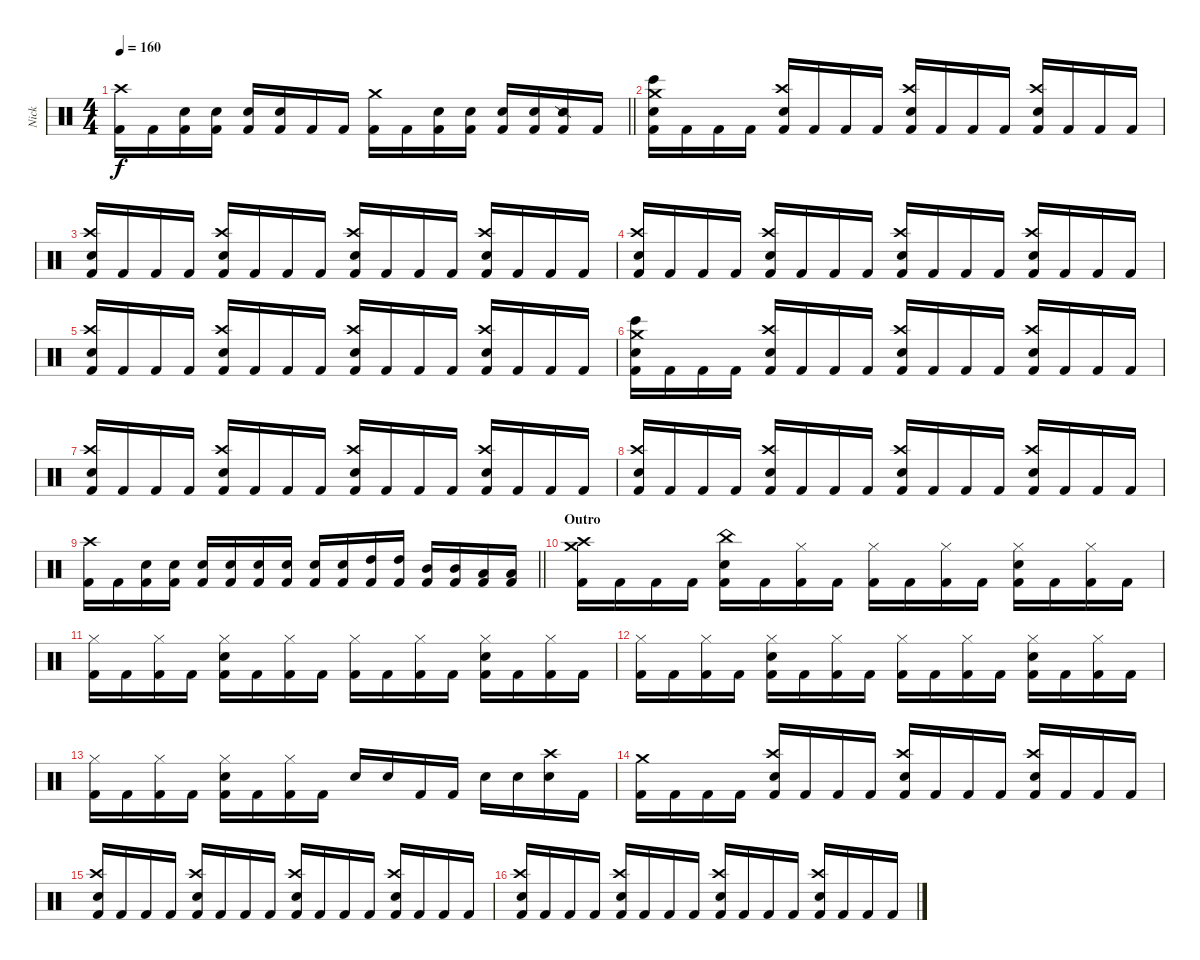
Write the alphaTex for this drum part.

\track ("Nick" "Nick") {instrument percussion}
\staff {score}
\articulation defaults
\ts (4 4)
\tempo 160
\clef neutral
\barLineRight lightlight
\ks c
("Kick (hit) 2" "Crash high (hit)").16{dy f} "Kick (hit) 2".16 ("Kick (hit) 2" "Electric Snare (hit)").16 ("Kick (hit) 2" "Electric Snare (hit)").16 ("Kick (hit) 2" "Electric Snare (hit)").16 ("Kick (hit) 2" "Electric Snare (hit)").16 "Kick (hit) 2".16 "Kick (hit) 2".16 ("Kick (hit) 2" "Crash medium (hit)").16 "Kick (hit) 2".16 ("Kick (hit) 2" "Electric Snare (hit)").16 ("Kick (hit) 2" "Electric Snare (hit)").16 ("Kick (hit) 2" "Electric Snare (hit)").16 ("Kick (hit) 2" "Electric Snare (hit)").16 ("Kick (hit) 2" "Snare (side stick) 2").16 "Kick (hit) 2".16 |
("Kick (hit) 2" "Electric Snare (hit)" "Bongo High (hit)" "Crash medium (hit)").16 "Kick (hit) 2".16 "Kick (hit) 2".16 "Kick (hit) 2".16 ("Kick (hit) 2" "Electric Snare (hit)" "Crash high (hit)").16 "Kick (hit) 2".16 "Kick (hit) 2".16 "Kick (hit) 2".16 ("Kick (hit) 2" "Electric Snare (hit)" "Crash high (hit)").16 "Kick (hit) 2".16 "Kick (hit) 2".16 "Kick (hit) 2".16 ("Kick (hit) 2" "Electric Snare (hit)" "Crash high (hit)").16 "Kick (hit) 2".16 "Kick (hit) 2".16 "Kick (hit) 2".16 |
("Kick (hit) 2" "Electric Snare (hit)" "Crash high (hit)").16 "Kick (hit) 2".16 "Kick (hit) 2".16 "Kick (hit) 2".16 ("Kick (hit) 2" "Electric Snare (hit)" "Crash high (hit)").16 "Kick (hit) 2".16 "Kick (hit) 2".16 "Kick (hit) 2".16 ("Kick (hit) 2" "Electric Snare (hit)" "Crash high (hit)").16 "Kick (hit) 2".16 "Kick (hit) 2".16 "Kick (hit) 2".16 ("Kick (hit) 2" "Electric Snare (hit)" "Crash high (hit)").16 "Kick (hit) 2".16 "Kick (hit) 2".16 "Kick (hit) 2".16 |
("Kick (hit) 2" "Electric Snare (hit)" "Crash high (hit)").16 "Kick (hit) 2".16 "Kick (hit) 2".16 "Kick (hit) 2".16 ("Kick (hit) 2" "Electric Snare (hit)" "Crash high (hit)").16 "Kick (hit) 2".16 "Kick (hit) 2".16 "Kick (hit) 2".16 ("Kick (hit) 2" "Electric Snare (hit)" "Crash high (hit)").16 "Kick (hit) 2".16 "Kick (hit) 2".16 "Kick (hit) 2".16 ("Kick (hit) 2" "Electric Snare (hit)" "Crash high (hit)").16 "Kick (hit) 2".16 "Kick (hit) 2".16 "Kick (hit) 2".16 |
("Kick (hit) 2" "Electric Snare (hit)" "Crash high (hit)").16 "Kick (hit) 2".16 "Kick (hit) 2".16 "Kick (hit) 2".16 ("Kick (hit) 2" "Electric Snare (hit)" "Crash high (hit)").16 "Kick (hit) 2".16 "Kick (hit) 2".16 "Kick (hit) 2".16 ("Kick (hit) 2" "Electric Snare (hit)" "Crash high (hit)").16 "Kick (hit) 2".16 "Kick (hit) 2".16 "Kick (hit) 2".16 ("Kick (hit) 2" "Electric Snare (hit)" "Crash high (hit)").16 "Kick (hit) 2".16 "Kick (hit) 2".16 "Kick (hit) 2".16 |
("Kick (hit) 2" "Electric Snare (hit)" "Bongo High (hit)" "Crash medium (hit)").16 "Kick (hit) 2".16 "Kick (hit) 2".16 "Kick (hit) 2".16 ("Kick (hit) 2" "Electric Snare (hit)" "Crash high (hit)").16 "Kick (hit) 2".16 "Kick (hit) 2".16 "Kick (hit) 2".16 ("Kick (hit) 2" "Electric Snare (hit)" "Crash high (hit)").16 "Kick (hit) 2".16 "Kick (hit) 2".16 "Kick (hit) 2".16 ("Kick (hit) 2" "Electric Snare (hit)" "Crash high (hit)").16 "Kick (hit) 2".16 "Kick (hit) 2".16 "Kick (hit) 2".16 |
("Kick (hit) 2" "Electric Snare (hit)" "Crash high (hit)").16 "Kick (hit) 2".16 "Kick (hit) 2".16 "Kick (hit) 2".16 ("Kick (hit) 2" "Electric Snare (hit)" "Crash high (hit)").16 "Kick (hit) 2".16 "Kick (hit) 2".16 "Kick (hit) 2".16 ("Kick (hit) 2" "Electric Snare (hit)" "Crash high (hit)").16 "Kick (hit) 2".16 "Kick (hit) 2".16 "Kick (hit) 2".16 ("Kick (hit) 2" "Electric Snare (hit)" "Crash high (hit)").16 "Kick (hit) 2".16 "Kick (hit) 2".16 "Kick (hit) 2".16 |
("Kick (hit) 2" "Electric Snare (hit)" "Crash high (hit)").16 "Kick (hit) 2".16 "Kick (hit) 2".16 "Kick (hit) 2".16 ("Kick (hit) 2" "Electric Snare (hit)" "Crash high (hit)").16 "Kick (hit) 2".16 "Kick (hit) 2".16 "Kick (hit) 2".16 ("Kick (hit) 2" "Electric Snare (hit)" "Crash high (hit)").16 "Kick (hit) 2".16 "Kick (hit) 2".16 "Kick (hit) 2".16 ("Kick (hit) 2" "Electric Snare (hit)" "Crash high (hit)").16 "Kick (hit) 2".16 "Kick (hit) 2".16 "Kick (hit) 2".16 |
\barLineRight lightlight
("Kick (hit) 2" "Crash high (hit)").16 "Kick (hit) 2".16 ("Kick (hit) 2" "Electric Snare (hit)").16 ("Kick (hit) 2" "Electric Snare (hit)").16 ("Kick (hit) 2" "Electric Snare (hit)").16 ("Kick (hit) 2" "Electric Snare (hit)").16 ("Kick (hit) 2" "Electric Snare (hit)").16 ("Kick (hit) 2" "Electric Snare (hit)").16 ("Kick (hit) 2" "Electric Snare (hit)").16 ("Kick (hit) 2" "Electric Snare (hit)").16 ("Kick (hit) 2" "High Tom (hit)").16 ("Kick (hit) 2" "High Tom (hit)").16 ("Kick (hit) 2" "Mid Tom (hit)").16 ("Kick (hit) 2" "Mid Tom (hit)").16 ("Kick (hit) 2" "Low Tom (hit)").16 ("Kick (hit) 2" "Low Tom (hit)").16 |
\section ("" "Outro")
("Kick (hit) 2" "Crash medium (hit)" "Crash high (hit)").16 "Kick (hit) 2".16 "Kick (hit) 2".16 "Kick (hit) 2".16 ("Kick (hit) 2" "Electric Snare (hit)" "China (hit)").16 "Kick (hit) 2".16 ("Kick (hit) 2" "Hi-Hat (closed)").16 "Kick (hit) 2".16 ("Kick (hit) 2" "Hi-Hat (closed)").16 "Kick (hit) 2".16 ("Kick (hit) 2" "Hi-Hat (closed)").16 "Kick (hit) 2".16 ("Kick (hit) 2" "Electric Snare (hit)" "Hi-Hat (closed)").16 "Kick (hit) 2".16 ("Kick (hit) 2" "Hi-Hat (closed)").16 "Kick (hit) 2".16 |
("Kick (hit) 2" "Hi-Hat (closed)").16 "Kick (hit) 2".16 ("Kick (hit) 2" "Hi-Hat (closed)").16 "Kick (hit) 2".16 ("Kick (hit) 2" "Electric Snare (hit)" "Hi-Hat (closed)").16 "Kick (hit) 2".16 ("Kick (hit) 2" "Hi-Hat (closed)").16 "Kick (hit) 2".16 ("Kick (hit) 2" "Hi-Hat (closed)").16 "Kick (hit) 2".16 ("Kick (hit) 2" "Hi-Hat (closed)").16 "Kick (hit) 2".16 ("Kick (hit) 2" "Electric Snare (hit)" "Hi-Hat (closed)").16 "Kick (hit) 2".16 ("Kick (hit) 2" "Hi-Hat (closed)").16 "Kick (hit) 2".16 |
("Kick (hit) 2" "Hi-Hat (closed)").16 "Kick (hit) 2".16 ("Kick (hit) 2" "Hi-Hat (closed)").16 "Kick (hit) 2".16 ("Kick (hit) 2" "Electric Snare (hit)" "Hi-Hat (closed)").16 "Kick (hit) 2".16 ("Kick (hit) 2" "Hi-Hat (closed)").16 "Kick (hit) 2".16 ("Kick (hit) 2" "Hi-Hat (closed)").16 "Kick (hit) 2".16 ("Kick (hit) 2" "Hi-Hat (closed)").16 "Kick (hit) 2".16 ("Kick (hit) 2" "Electric Snare (hit)" "Hi-Hat (closed)").16 "Kick (hit) 2".16 ("Kick (hit) 2" "Hi-Hat (closed)").16 "Kick (hit) 2".16 |
("Kick (hit) 2" "Hi-Hat (closed)").16 "Kick (hit) 2".16 ("Kick (hit) 2" "Hi-Hat (closed)").16 "Kick (hit) 2".16 ("Kick (hit) 2" "Electric Snare (hit)" "Hi-Hat (closed)").16 "Kick (hit) 2".16 ("Kick (hit) 2" "Hi-Hat (closed)").16 "Kick (hit) 2".16 "Electric Snare (hit)".16 "Electric Snare (hit)".16 "Kick (hit) 2".16 "Kick (hit) 2".16 "Electric Snare (hit)".16 "Electric Snare (hit)".16 ("Electric Snare (hit)" "Crash high (hit)").16 "Kick (hit) 2".16 |
("Kick (hit) 2" "Crash medium (hit)").16 "Kick (hit) 2".16 "Kick (hit) 2".16 "Kick (hit) 2".16 ("Kick (hit) 2" "Electric Snare (hit)" "Crash high (hit)").16 "Kick (hit) 2".16 "Kick (hit) 2".16 "Kick (hit) 2".16 ("Kick (hit) 2" "Electric Snare (hit)" "Crash high (hit)").16 "Kick (hit) 2".16 "Kick (hit) 2".16 "Kick (hit) 2".16 ("Kick (hit) 2" "Electric Snare (hit)" "Crash high (hit)").16 "Kick (hit) 2".16 "Kick (hit) 2".16 "Kick (hit) 2".16 |
("Kick (hit) 2" "Electric Snare (hit)" "Crash high (hit)").16 "Kick (hit) 2".16 "Kick (hit) 2".16 "Kick (hit) 2".16 ("Kick (hit) 2" "Electric Snare (hit)" "Crash high (hit)").16 "Kick (hit) 2".16 "Kick (hit) 2".16 "Kick (hit) 2".16 ("Kick (hit) 2" "Electric Snare (hit)" "Crash high (hit)").16 "Kick (hit) 2".16 "Kick (hit) 2".16 "Kick (hit) 2".16 ("Kick (hit) 2" "Electric Snare (hit)" "Crash high (hit)").16 "Kick (hit) 2".16 "Kick (hit) 2".16 "Kick (hit) 2".16 |
("Kick (hit) 2" "Electric Snare (hit)" "Crash high (hit)").16 "Kick (hit) 2".16 "Kick (hit) 2".16 "Kick (hit) 2".16 ("Kick (hit) 2" "Electric Snare (hit)" "Crash high (hit)").16 "Kick (hit) 2".16 "Kick (hit) 2".16 "Kick (hit) 2".16 ("Kick (hit) 2" "Electric Snare (hit)" "Crash high (hit)").16 "Kick (hit) 2".16 "Kick (hit) 2".16 "Kick (hit) 2".16 ("Kick (hit) 2" "Electric Snare (hit)" "Crash high (hit)").16 "Kick (hit) 2".16 "Kick (hit) 2".16 "Kick (hit) 2".16
